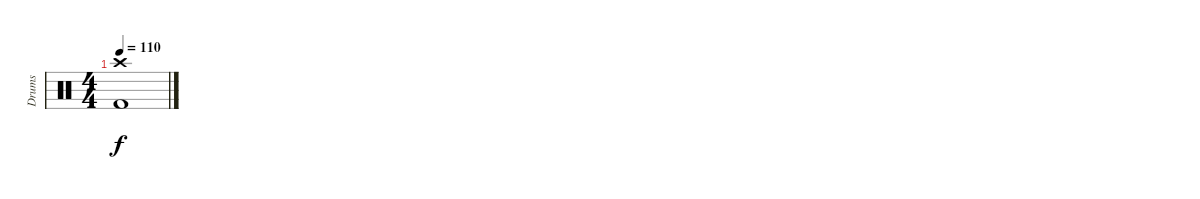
\track ("Drums" "Drums") {instrument percussion}
\staff {score}
\articulation defaults
\ts (4 4)
\tempo 110
\clef neutral
\ks c
("Crash high (hit)" "Kick (hit) 2").1{dy f}
